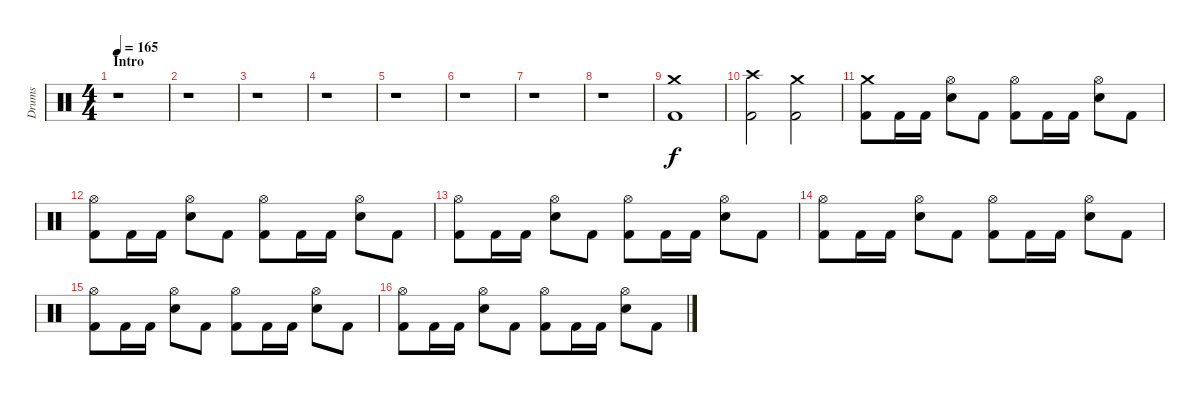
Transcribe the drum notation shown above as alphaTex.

\track ("Drums" "Drums") {instrument percussion}
\staff {score}
\articulation defaults
\ts (4 4)
\section ("" "Intro")
\tempo 165
\clef neutral
\ks c
r.1{dy f} |
r.1 |
r.1 |
r.1 |
r.1 |
r.1 |
r.1 |
r.1 |
("Kick (hit) 2" "Crash medium (hit)").1 |
("Kick (hit) 2" "Crash high (hit)").2 ("Kick (hit) 2" "Crash medium (hit)").2 |
("Kick (hit) 2" "Crash medium (hit)").8 "Kick (hit) 2".16 "Kick (hit) 2".16 ("Electric Snare (hit)" "Hi-Hat (open)").8 "Kick (hit) 2".8 ("Kick (hit) 2" "Hi-Hat (open)").8 "Kick (hit) 2".16 "Kick (hit) 2".16 ("Electric Snare (hit)" "Hi-Hat (open)").8 "Kick (hit) 2".8 |
("Kick (hit) 2" "Hi-Hat (open)").8 "Kick (hit) 2".16 "Kick (hit) 2".16 ("Electric Snare (hit)" "Hi-Hat (open)").8 "Kick (hit) 2".8 ("Kick (hit) 2" "Hi-Hat (open)").8 "Kick (hit) 2".16 "Kick (hit) 2".16 ("Electric Snare (hit)" "Hi-Hat (open)").8 "Kick (hit) 2".8 |
("Kick (hit) 2" "Hi-Hat (open)").8 "Kick (hit) 2".16 "Kick (hit) 2".16 ("Electric Snare (hit)" "Hi-Hat (open)").8 "Kick (hit) 2".8 ("Kick (hit) 2" "Hi-Hat (open)").8 "Kick (hit) 2".16 "Kick (hit) 2".16 ("Electric Snare (hit)" "Hi-Hat (open)").8 "Kick (hit) 2".8 |
("Kick (hit) 2" "Hi-Hat (open)").8 "Kick (hit) 2".16 "Kick (hit) 2".16 ("Electric Snare (hit)" "Hi-Hat (open)").8 "Kick (hit) 2".8 ("Kick (hit) 2" "Hi-Hat (open)").8 "Kick (hit) 2".16 "Kick (hit) 2".16 ("Electric Snare (hit)" "Hi-Hat (open)").8 "Kick (hit) 2".8 |
("Kick (hit) 2" "Hi-Hat (open)").8 "Kick (hit) 2".16 "Kick (hit) 2".16 ("Electric Snare (hit)" "Hi-Hat (open)").8 "Kick (hit) 2".8 ("Kick (hit) 2" "Hi-Hat (open)").8 "Kick (hit) 2".16 "Kick (hit) 2".16 ("Electric Snare (hit)" "Hi-Hat (open)").8 "Kick (hit) 2".8 |
("Kick (hit) 2" "Hi-Hat (open)").8 "Kick (hit) 2".16 "Kick (hit) 2".16 ("Electric Snare (hit)" "Hi-Hat (open)").8 "Kick (hit) 2".8 ("Kick (hit) 2" "Hi-Hat (open)").8 "Kick (hit) 2".16 "Kick (hit) 2".16 ("Electric Snare (hit)" "Hi-Hat (open)").8 "Kick (hit) 2".8
